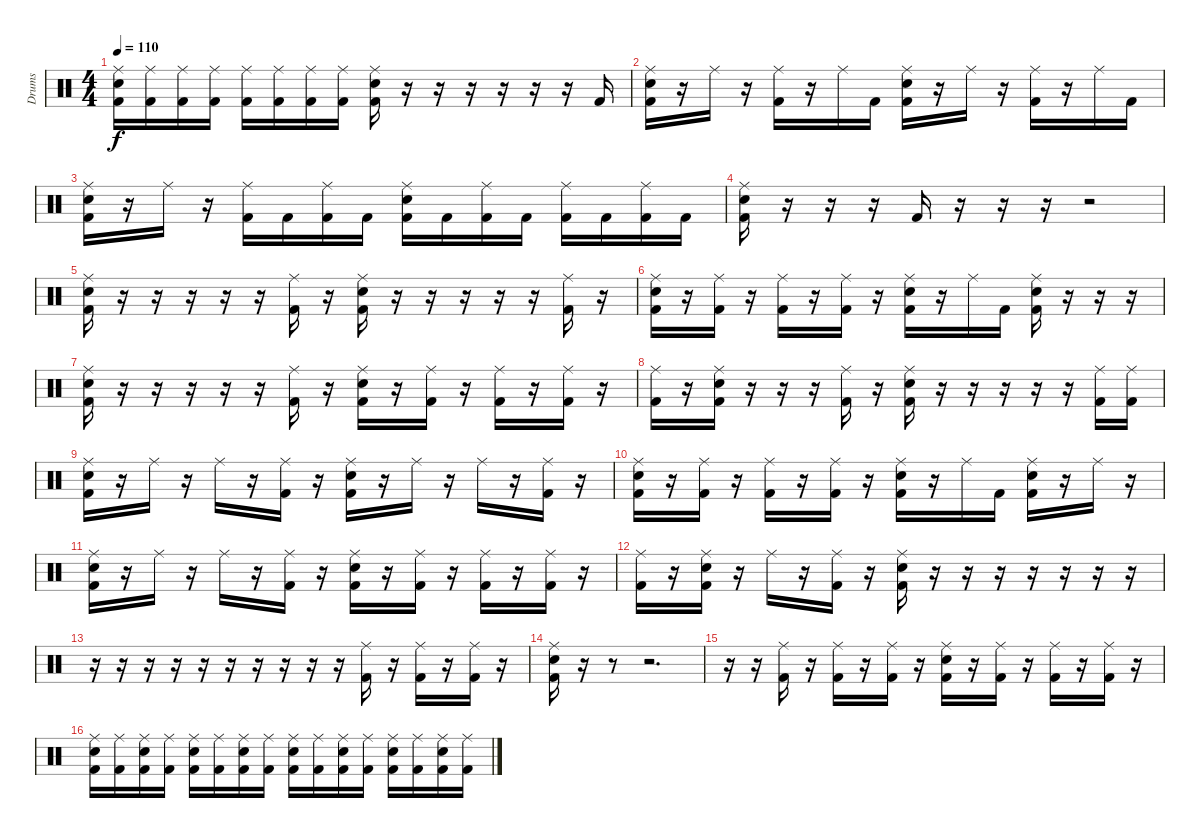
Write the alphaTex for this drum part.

\track ("Drums" "Drums") {instrument percussion}
\staff {score}
\articulation defaults
\ts (4 4)
\tempo 110
\clef neutral
\ks c
("Ride (middle)" "Electric Snare (hit)" "Kick (hit) 2").16{dy f} ("Ride (middle)" "Kick (hit) 2").16 ("Ride (middle)" "Kick (hit) 2").16 ("Ride (middle)" "Kick (hit) 2").16 ("Ride (middle)" "Kick (hit) 2").16 ("Ride (middle)" "Kick (hit) 2").16 ("Ride (middle)" "Kick (hit) 2").16 ("Ride (middle)" "Kick (hit) 2").16 ("Ride (middle)" "Electric Snare (hit)" "Kick (hit) 2").16 r.16 r.16 r.16 r.16 r.16 r.16 "Kick (hit) 2".16 |
("Ride (middle)" "Electric Snare (hit)" "Kick (hit) 2").16 r.16 "Ride (middle)".16 r.16 ("Ride (middle)" "Kick (hit) 2").16 r.16 "Ride (middle)".16 "Kick (hit) 2".16 ("Ride (middle)" "Electric Snare (hit)" "Kick (hit) 2").16 r.16 "Ride (middle)".16 r.16 ("Ride (middle)" "Kick (hit) 2").16 r.16 "Ride (middle)".16 "Kick (hit) 2".16 |
("Ride (middle)" "Electric Snare (hit)" "Kick (hit) 2").16 r.16 "Ride (middle)".16 r.16 ("Ride (middle)" "Kick (hit) 2").16 "Kick (hit) 2".16 ("Ride (middle)" "Kick (hit) 2").16 "Kick (hit) 2".16 ("Ride (middle)" "Electric Snare (hit)" "Kick (hit) 2").16 "Kick (hit) 2".16 ("Ride (middle)" "Kick (hit) 2").16 "Kick (hit) 2".16 ("Ride (middle)" "Kick (hit) 2").16 "Kick (hit) 2".16 ("Ride (middle)" "Kick (hit) 2").16 "Kick (hit) 2".16 |
("Ride (middle)" "Electric Snare (hit)" "Kick (hit) 2").16 r.16 r.16 r.16 "Kick (hit) 2".16 r.16 r.16 r.16 r.2 |
("Ride (middle)" "Electric Snare (hit)" "Kick (hit) 2").16 r.16 r.16 r.16 r.16 r.16 ("Ride (middle)" "Kick (hit) 2").16 r.16 ("Ride (middle)" "Electric Snare (hit)" "Kick (hit) 2").16 r.16 r.16 r.16 r.16 r.16 ("Ride (middle)" "Kick (hit) 2").16 r.16 |
("Ride (middle)" "Electric Snare (hit)" "Kick (hit) 2").16 r.16 ("Ride (middle)" "Kick (hit) 2").16 r.16 ("Ride (middle)" "Kick (hit) 2").16 r.16 ("Ride (middle)" "Kick (hit) 2").16 r.16 ("Ride (middle)" "Electric Snare (hit)" "Kick (hit) 2").16 r.16 "Ride (middle)".16 "Kick (hit) 2".16 ("Ride (middle)" "Electric Snare (hit)" "Kick (hit) 2").16 r.16 r.16 r.16 |
("Ride (middle)" "Electric Snare (hit)" "Kick (hit) 2").16 r.16 r.16 r.16 r.16 r.16 ("Ride (middle)" "Kick (hit) 2").16 r.16 ("Ride (middle)" "Electric Snare (hit)" "Kick (hit) 2").16 r.16 ("Ride (middle)" "Kick (hit) 2").16 r.16 ("Ride (middle)" "Kick (hit) 2").16 r.16 ("Ride (middle)" "Kick (hit) 2").16 r.16 |
("Ride (middle)" "Kick (hit) 2").16 r.16 ("Ride (middle)" "Electric Snare (hit)" "Kick (hit) 2").16 r.16 r.16 r.16 ("Ride (middle)" "Kick (hit) 2").16 r.16 ("Ride (middle)" "Electric Snare (hit)" "Kick (hit) 2").16 r.16 r.16 r.16 r.16 r.16 ("Ride (middle)" "Kick (hit) 2").16 ("Ride (middle)" "Kick (hit) 2").16 |
("Ride (middle)" "Electric Snare (hit)" "Kick (hit) 2").16 r.16 "Ride (middle)".16 r.16 "Ride (middle)".16 r.16 ("Ride (middle)" "Kick (hit) 2").16 r.16 ("Ride (middle)" "Electric Snare (hit)" "Kick (hit) 2").16 r.16 "Ride (middle)".16 r.16 "Ride (middle)".16 r.16 ("Ride (middle)" "Kick (hit) 2").16 r.16 |
("Ride (middle)" "Electric Snare (hit)" "Kick (hit) 2").16 r.16 ("Ride (middle)" "Kick (hit) 2").16 r.16 ("Ride (middle)" "Kick (hit) 2").16 r.16 ("Ride (middle)" "Kick (hit) 2").16 r.16 ("Ride (middle)" "Electric Snare (hit)" "Kick (hit) 2").16 r.16 "Ride (middle)".16 "Kick (hit) 2".16 ("Ride (middle)" "Electric Snare (hit)" "Kick (hit) 2").16 r.16 "Ride (middle)".16 r.16 |
("Ride (middle)" "Electric Snare (hit)" "Kick (hit) 2").16 r.16 "Ride (middle)".16 r.16 "Ride (middle)".16 r.16 ("Ride (middle)" "Kick (hit) 2").16 r.16 ("Ride (middle)" "Electric Snare (hit)" "Kick (hit) 2").16 r.16 ("Ride (middle)" "Kick (hit) 2").16 r.16 ("Ride (middle)" "Kick (hit) 2").16 r.16 ("Ride (middle)" "Kick (hit) 2").16 r.16 |
("Ride (middle)" "Kick (hit) 2").16 r.16 ("Ride (middle)" "Electric Snare (hit)" "Kick (hit) 2").16 r.16 "Ride (middle)".16 r.16 ("Ride (middle)" "Kick (hit) 2").16 r.16 ("Ride (middle)" "Electric Snare (hit)" "Kick (hit) 2").16 r.16 r.16 r.16 r.16 r.16 r.16 r.16 |
r.16 r.16 r.16 r.16 r.16 r.16 r.16 r.16 r.16 r.16 ("Ride (middle)" "Kick (hit) 2").16 r.16 ("Ride (middle)" "Kick (hit) 2").16 r.16 ("Ride (middle)" "Kick (hit) 2").16 r.16 |
("Ride (middle)" "Electric Snare (hit)" "Kick (hit) 2").16 r.16 r.8 r.2{d} |
r.16 r.16 ("Ride (middle)" "Kick (hit) 2").16 r.16 ("Ride (middle)" "Kick (hit) 2").16 r.16 ("Ride (middle)" "Kick (hit) 2").16 r.16 ("Ride (middle)" "Electric Snare (hit)" "Kick (hit) 2").16 r.16 ("Ride (middle)" "Kick (hit) 2").16 r.16 ("Ride (middle)" "Kick (hit) 2").16 r.16 ("Ride (middle)" "Kick (hit) 2").16 r.16 |
("Ride (middle)" "Electric Snare (hit)" "Kick (hit) 2").16 ("Ride (middle)" "Kick (hit) 2").16 ("Ride (middle)" "Electric Snare (hit)" "Kick (hit) 2").16 ("Ride (middle)" "Kick (hit) 2").16 ("Ride (middle)" "Electric Snare (hit)" "Kick (hit) 2").16 ("Ride (middle)" "Kick (hit) 2").16 ("Ride (middle)" "Electric Snare (hit)" "Kick (hit) 2").16 ("Ride (middle)" "Kick (hit) 2").16 ("Ride (middle)" "Electric Snare (hit)" "Kick (hit) 2").16 ("Ride (middle)" "Kick (hit) 2").16 ("Ride (middle)" "Electric Snare (hit)" "Kick (hit) 2").16 ("Ride (middle)" "Kick (hit) 2").16 ("Ride (middle)" "Electric Snare (hit)" "Kick (hit) 2").16 ("Ride (middle)" "Kick (hit) 2").16 ("Ride (middle)" "Electric Snare (hit)" "Kick (hit) 2").16 ("Ride (middle)" "Kick (hit) 2").16
